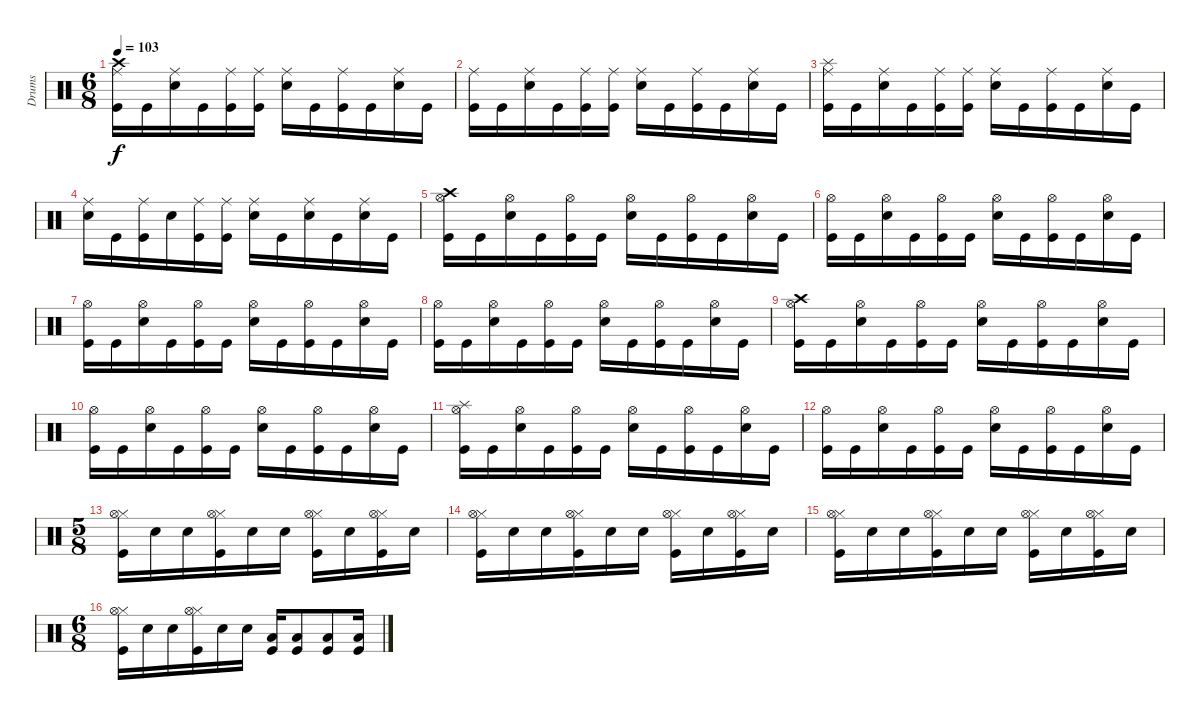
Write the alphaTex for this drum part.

\track ("Drums" "Drums") {instrument percussion}
\staff {score}
\articulation defaults
\ts (6 8)
\tempo 103
\clef neutral
\ks c
("Crash high (hit)" "Ride (middle)" "Kick (hit)").16{dy f} "Kick (hit)".16 ("Ride (middle)" "Electric Snare (hit)").16 "Kick (hit)".16 ("Ride (middle)" "Kick (hit)").16 ("Ride (middle)" "Kick (hit)").16 ("Ride (middle)" "Electric Snare (hit)").16 "Kick (hit)".16 ("Ride (middle)" "Kick (hit)").16 "Kick (hit)".16 ("Ride (middle)" "Electric Snare (hit)").16 "Kick (hit)".16 |
("Ride (middle)" "Kick (hit)").16 "Kick (hit)".16 ("Ride (middle)" "Electric Snare (hit)").16 "Kick (hit)".16 ("Ride (middle)" "Kick (hit)").16 ("Ride (middle)" "Kick (hit)").16 ("Ride (middle)" "Electric Snare (hit)").16 "Kick (hit)".16 ("Ride (middle)" "Kick (hit)").16 "Kick (hit)".16 ("Ride (middle)" "Electric Snare (hit)").16 "Kick (hit)".16 |
("Splash (hit)" "Ride (middle)" "Kick (hit)").16 "Kick (hit)".16 ("Ride (middle)" "Electric Snare (hit)").16 "Kick (hit)".16 ("Ride (middle)" "Kick (hit)").16 ("Ride (middle)" "Kick (hit)").16 ("Ride (middle)" "Electric Snare (hit)").16 "Kick (hit)".16 ("Ride (middle)" "Kick (hit)").16 "Kick (hit)".16 ("Ride (middle)" "Electric Snare (hit)").16 "Kick (hit)".16 |
("Ride (middle)" "Electric Snare (hit)").16 "Kick (hit)".16 ("Ride (middle)" "Kick (hit)").16 "Electric Snare (hit)".16 ("Ride (middle)" "Kick (hit)").16 ("Ride (middle)" "Kick (hit)").16 ("Ride (middle)" "Electric Snare (hit)").16 "Kick (hit)".16 ("Ride (middle)" "Electric Snare (hit)").16 "Kick (hit)".16 ("Ride (middle)" "Electric Snare (hit)").16 "Kick (hit)".16 |
("Crash high (hit)" "Hi-Hat (open)" "Kick (hit)").16 "Kick (hit)".16 ("Hi-Hat (open)" "Electric Snare (hit)").16 "Kick (hit)".16 ("Hi-Hat (open)" "Kick (hit)").16 "Kick (hit)".16 ("Hi-Hat (open)" "Electric Snare (hit)").16 "Kick (hit)".16 ("Hi-Hat (open)" "Kick (hit)").16 "Kick (hit)".16 ("Hi-Hat (open)" "Electric Snare (hit)").16 "Kick (hit)".16 |
("Hi-Hat (open)" "Kick (hit)").16 "Kick (hit)".16 ("Hi-Hat (open)" "Electric Snare (hit)").16 "Kick (hit)".16 ("Hi-Hat (open)" "Kick (hit)").16 "Kick (hit)".16 ("Hi-Hat (open)" "Electric Snare (hit)").16 "Kick (hit)".16 ("Hi-Hat (open)" "Kick (hit)").16 "Kick (hit)".16 ("Hi-Hat (open)" "Electric Snare (hit)").16 "Kick (hit)".16 |
("Hi-Hat (open)" "Kick (hit)").16 "Kick (hit)".16 ("Hi-Hat (open)" "Electric Snare (hit)").16 "Kick (hit)".16 ("Hi-Hat (open)" "Kick (hit)").16 "Kick (hit)".16 ("Hi-Hat (open)" "Electric Snare (hit)").16 "Kick (hit)".16 ("Hi-Hat (open)" "Kick (hit)").16 "Kick (hit)".16 ("Hi-Hat (open)" "Electric Snare (hit)").16 "Kick (hit)".16 |
("Hi-Hat (open)" "Kick (hit)").16 "Kick (hit)".16 ("Hi-Hat (open)" "Electric Snare (hit)").16 "Kick (hit)".16 ("Hi-Hat (open)" "Kick (hit)").16 "Kick (hit)".16 ("Hi-Hat (open)" "Electric Snare (hit)").16 "Kick (hit)".16 ("Hi-Hat (open)" "Kick (hit)").16 "Kick (hit)".16 ("Hi-Hat (open)" "Electric Snare (hit)").16 "Kick (hit)".16 |
("Crash high (hit)" "Hi-Hat (open)" "Kick (hit)").16 "Kick (hit)".16 ("Hi-Hat (open)" "Electric Snare (hit)").16 "Kick (hit)".16 ("Hi-Hat (open)" "Kick (hit)").16 "Kick (hit)".16 ("Hi-Hat (open)" "Electric Snare (hit)").16 "Kick (hit)".16 ("Hi-Hat (open)" "Kick (hit)").16 "Kick (hit)".16 ("Hi-Hat (open)" "Electric Snare (hit)").16 "Kick (hit)".16 |
("Hi-Hat (open)" "Kick (hit)").16 "Kick (hit)".16 ("Hi-Hat (open)" "Electric Snare (hit)").16 "Kick (hit)".16 ("Hi-Hat (open)" "Kick (hit)").16 "Kick (hit)".16 ("Hi-Hat (open)" "Electric Snare (hit)").16 "Kick (hit)".16 ("Hi-Hat (open)" "Kick (hit)").16 "Kick (hit)".16 ("Hi-Hat (open)" "Electric Snare (hit)").16 "Kick (hit)".16 |
("Splash (hit)" "Hi-Hat (open)" "Kick (hit)").16 "Kick (hit)".16 ("Hi-Hat (open)" "Electric Snare (hit)").16 "Kick (hit)".16 ("Hi-Hat (open)" "Kick (hit)").16 "Kick (hit)".16 ("Hi-Hat (open)" "Electric Snare (hit)").16 "Kick (hit)".16 ("Hi-Hat (open)" "Kick (hit)").16 "Kick (hit)".16 ("Hi-Hat (open)" "Electric Snare (hit)").16 "Kick (hit)".16 |
("Hi-Hat (open)" "Kick (hit)").16 "Kick (hit)".16 ("Hi-Hat (open)" "Electric Snare (hit)").16 "Kick (hit)".16 ("Hi-Hat (open)" "Kick (hit)").16 "Kick (hit)".16 ("Hi-Hat (open)" "Electric Snare (hit)").16 "Kick (hit)".16 ("Hi-Hat (open)" "Kick (hit)").16 "Kick (hit)".16 ("Hi-Hat (open)" "Electric Snare (hit)").16 "Kick (hit)".16 |
\ts (5 8)
("Hi-Hat (closed)" "Hi-Hat (open)" "Kick (hit)").16 "Electric Snare (hit)".16 "Electric Snare (hit)".16 ("Hi-Hat (closed)" "Hi-Hat (open)" "Kick (hit)").16 "Electric Snare (hit)".16 "Electric Snare (hit)".16 ("Hi-Hat (closed)" "Hi-Hat (open)" "Kick (hit)").16 "Electric Snare (hit)".16 ("Hi-Hat (closed)" "Hi-Hat (open)" "Kick (hit)").16 "Electric Snare (hit)".16 |
("Hi-Hat (closed)" "Hi-Hat (open)" "Kick (hit)").16 "Electric Snare (hit)".16 "Electric Snare (hit)".16 ("Hi-Hat (closed)" "Hi-Hat (open)" "Kick (hit)").16 "Electric Snare (hit)".16 "Electric Snare (hit)".16 ("Hi-Hat (closed)" "Hi-Hat (open)" "Kick (hit)").16 "Electric Snare (hit)".16 ("Hi-Hat (closed)" "Hi-Hat (open)" "Kick (hit)").16 "Electric Snare (hit)".16 |
("Hi-Hat (closed)" "Hi-Hat (open)" "Kick (hit)").16 "Electric Snare (hit)".16 "Electric Snare (hit)".16 ("Hi-Hat (closed)" "Hi-Hat (open)" "Kick (hit)").16 "Electric Snare (hit)".16 "Electric Snare (hit)".16 ("Hi-Hat (closed)" "Hi-Hat (open)" "Kick (hit)").16 "Electric Snare (hit)".16 ("Hi-Hat (closed)" "Hi-Hat (open)" "Kick (hit)").16 "Electric Snare (hit)".16 |
\ts (6 8)
("Hi-Hat (closed)" "Hi-Hat (open)" "Kick (hit)").16 "Electric Snare (hit)".16 "Electric Snare (hit)".16 ("Hi-Hat (closed)" "Hi-Hat (open)" "Kick (hit)").16 "Electric Snare (hit)".16 "Electric Snare (hit)".16 ("Low Floor Tom (hit)" "Kick (hit)").16 ("Low Floor Tom (hit)" "Kick (hit)").8 ("Low Floor Tom (hit)" "Kick (hit)").8 ("Low Floor Tom (hit)" "Kick (hit)").16
